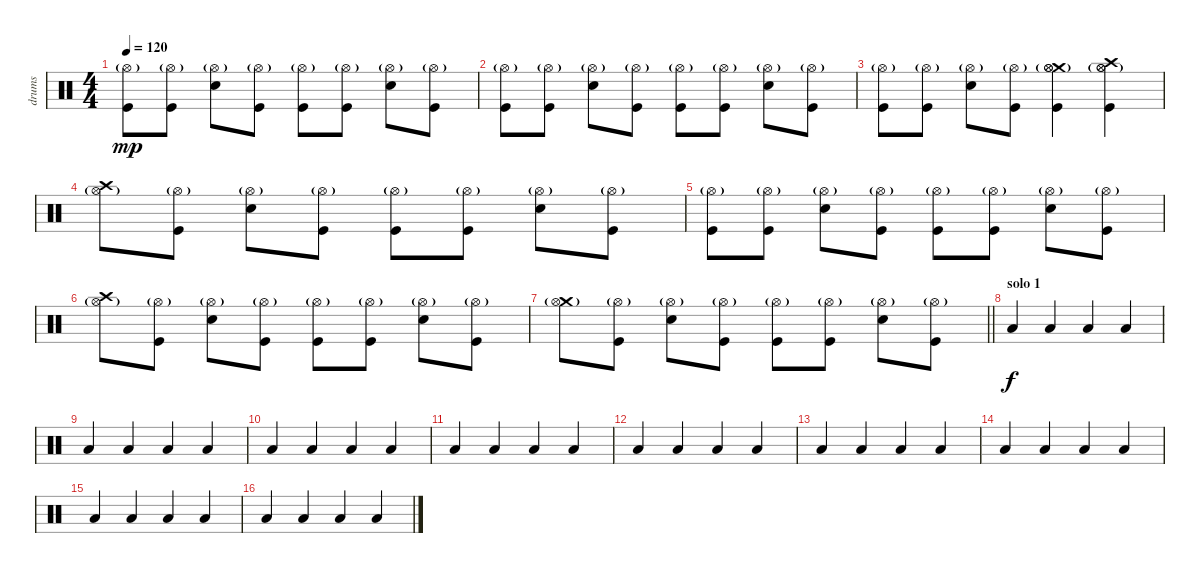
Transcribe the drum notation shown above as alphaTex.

\track ("drums" "drums") {instrument percussion}
\staff {score}
\articulation defaults
\ts (4 4)
\tempo 120
\clef neutral
\ks c
("Kick (hit)" "Hi-Hat (open)"{g}).8{dy mp} ("Kick (hit)" "Hi-Hat (open)"{g}).8 ("Electric Snare (hit)" "Hi-Hat (open)"{g}).8 ("Kick (hit)" "Hi-Hat (open)"{g}).8 ("Kick (hit)" "Hi-Hat (open)"{g}).8 ("Kick (hit)" "Hi-Hat (open)"{g}).8 ("Electric Snare (hit)" "Hi-Hat (open)"{g}).8 ("Kick (hit)" "Hi-Hat (open)"{g}).8 |
("Kick (hit)" "Hi-Hat (open)"{g}).8 ("Kick (hit)" "Hi-Hat (open)"{g}).8 ("Electric Snare (hit)" "Hi-Hat (open)"{g}).8 ("Kick (hit)" "Hi-Hat (open)"{g}).8 ("Kick (hit)" "Hi-Hat (open)"{g}).8 ("Kick (hit)" "Hi-Hat (open)"{g}).8 ("Electric Snare (hit)" "Hi-Hat (open)"{g}).8 ("Kick (hit)" "Hi-Hat (open)"{g}).8 |
("Kick (hit)" "Hi-Hat (open)"{g}).8 ("Kick (hit)" "Hi-Hat (open)"{g}).8 ("Electric Snare (hit)" "Hi-Hat (open)"{g}).8 ("Kick (hit)" "Hi-Hat (open)"{g}).8 ("Crash medium (hit)" "Hi-Hat (open)" "Kick (hit)" "Hi-Hat (open)"{g}).4 ("Crash high (hit)" "Hi-Hat (open)" "Kick (hit)" "Hi-Hat (open)"{g}).4 |
("Crash high (hit)" "Hi-Hat (open)"{g}).8 ("Kick (hit)" "Hi-Hat (open)"{g}).8 ("Electric Snare (hit)" "Hi-Hat (open)"{g}).8 ("Kick (hit)" "Hi-Hat (open)"{g}).8 ("Kick (hit)" "Hi-Hat (open)"{g}).8 ("Kick (hit)" "Hi-Hat (open)"{g}).8 ("Electric Snare (hit)" "Hi-Hat (open)"{g}).8 ("Kick (hit)" "Hi-Hat (open)"{g}).8 |
("Kick (hit)" "Hi-Hat (open)"{g}).8 ("Kick (hit)" "Hi-Hat (open)"{g}).8 ("Electric Snare (hit)" "Hi-Hat (open)"{g}).8 ("Kick (hit)" "Hi-Hat (open)"{g}).8 ("Kick (hit)" "Hi-Hat (open)"{g}).8 ("Kick (hit)" "Hi-Hat (open)"{g}).8 ("Electric Snare (hit)" "Hi-Hat (open)"{g}).8 ("Kick (hit)" "Hi-Hat (open)"{g}).8 |
("Crash high (hit)" "Hi-Hat (open)"{g}).8 ("Kick (hit)" "Hi-Hat (open)"{g}).8 ("Electric Snare (hit)" "Hi-Hat (open)"{g}).8 ("Kick (hit)" "Hi-Hat (open)"{g}).8 ("Kick (hit)" "Hi-Hat (open)"{g}).8 ("Kick (hit)" "Hi-Hat (open)"{g}).8 ("Electric Snare (hit)" "Hi-Hat (open)"{g}).8 ("Kick (hit)" "Hi-Hat (open)"{g}).8 |
\barLineRight lightlight
("Crash medium (hit)" "Hi-Hat (open)"{g}).8 ("Kick (hit)" "Hi-Hat (open)"{g}).8 ("Electric Snare (hit)" "Hi-Hat (open)"{g}).8 ("Kick (hit)" "Hi-Hat (open)"{g}).8 ("Kick (hit)" "Hi-Hat (open)"{g}).8 ("Kick (hit)" "Hi-Hat (open)"{g}).8 ("Electric Snare (hit)" "Hi-Hat (open)"{g}).8 ("Kick (hit)" "Hi-Hat (open)"{g}).8 |
\section ("" "solo 1")
"Low Tom (hit)".4{dy f} "Low Tom (hit)".4 "Low Tom (hit)".4 "Low Tom (hit)".4 |
"Low Tom (hit)".4 "Low Tom (hit)".4 "Low Tom (hit)".4 "Low Tom (hit)".4 |
"Low Tom (hit)".4 "Low Tom (hit)".4 "Low Tom (hit)".4 "Low Tom (hit)".4 |
"Low Tom (hit)".4 "Low Tom (hit)".4 "Low Tom (hit)".4 "Low Tom (hit)".4 |
"Low Tom (hit)".4 "Low Tom (hit)".4 "Low Tom (hit)".4 "Low Tom (hit)".4 |
"Low Tom (hit)".4 "Low Tom (hit)".4 "Low Tom (hit)".4 "Low Tom (hit)".4 |
"Low Tom (hit)".4 "Low Tom (hit)".4 "Low Tom (hit)".4 "Low Tom (hit)".4 |
"Low Tom (hit)".4 "Low Tom (hit)".4 "Low Tom (hit)".4 "Low Tom (hit)".4 |
"Low Tom (hit)".4 "Low Tom (hit)".4 "Low Tom (hit)".4 "Low Tom (hit)".4
